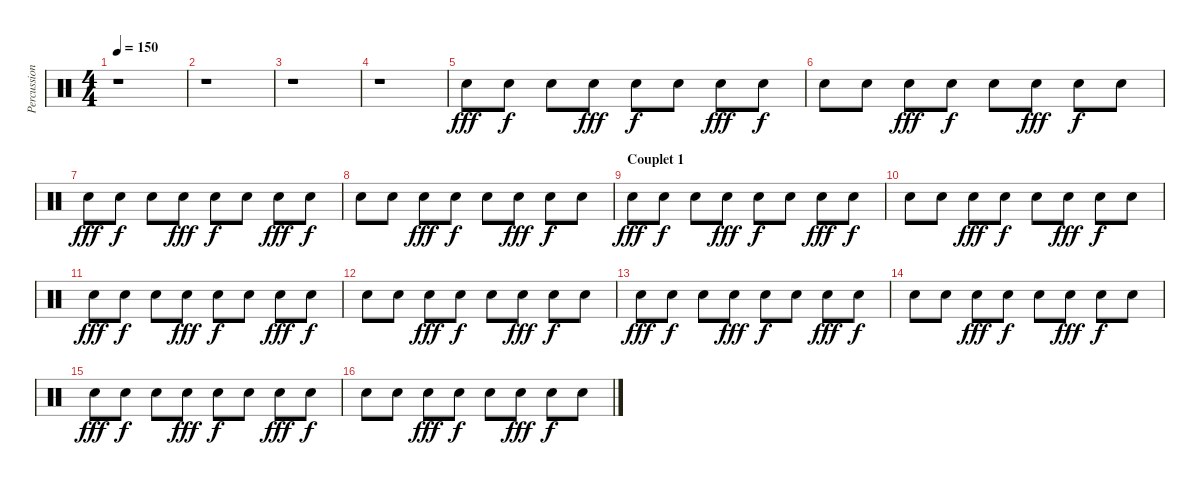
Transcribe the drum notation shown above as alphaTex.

\track ("Percussions" "Percussion") {instrument percussion}
\staff {score}
\articulation defaults
\ts (4 4)
\tempo 150
\clef neutral
\ks c
r.1{dy fff} |
r.1 |
r.1 |
r.1 |
"Electric Snare (hit)".8 "Electric Snare (hit)".8{dy f} "Electric Snare (hit)".8 "Electric Snare (hit)".8{dy fff} "Electric Snare (hit)".8{dy f} "Electric Snare (hit)".8 "Electric Snare (hit)".8{dy fff} "Electric Snare (hit)".8{dy f} |
"Electric Snare (hit)".8 "Electric Snare (hit)".8 "Electric Snare (hit)".8{dy fff} "Electric Snare (hit)".8{dy f} "Electric Snare (hit)".8 "Electric Snare (hit)".8{dy fff} "Electric Snare (hit)".8{dy f} "Electric Snare (hit)".8 |
"Electric Snare (hit)".8{dy fff} "Electric Snare (hit)".8{dy f} "Electric Snare (hit)".8 "Electric Snare (hit)".8{dy fff} "Electric Snare (hit)".8{dy f} "Electric Snare (hit)".8 "Electric Snare (hit)".8{dy fff} "Electric Snare (hit)".8{dy f} |
"Electric Snare (hit)".8 "Electric Snare (hit)".8 "Electric Snare (hit)".8{dy fff} "Electric Snare (hit)".8{dy f} "Electric Snare (hit)".8 "Electric Snare (hit)".8{dy fff} "Electric Snare (hit)".8{dy f} "Electric Snare (hit)".8 |
\section ("" "Couplet 1")
"Electric Snare (hit)".8{dy fff} "Electric Snare (hit)".8{dy f} "Electric Snare (hit)".8 "Electric Snare (hit)".8{dy fff} "Electric Snare (hit)".8{dy f} "Electric Snare (hit)".8 "Electric Snare (hit)".8{dy fff} "Electric Snare (hit)".8{dy f} |
"Electric Snare (hit)".8 "Electric Snare (hit)".8 "Electric Snare (hit)".8{dy fff} "Electric Snare (hit)".8{dy f} "Electric Snare (hit)".8 "Electric Snare (hit)".8{dy fff} "Electric Snare (hit)".8{dy f} "Electric Snare (hit)".8 |
"Electric Snare (hit)".8{dy fff} "Electric Snare (hit)".8{dy f} "Electric Snare (hit)".8 "Electric Snare (hit)".8{dy fff} "Electric Snare (hit)".8{dy f} "Electric Snare (hit)".8 "Electric Snare (hit)".8{dy fff} "Electric Snare (hit)".8{dy f} |
"Electric Snare (hit)".8 "Electric Snare (hit)".8 "Electric Snare (hit)".8{dy fff} "Electric Snare (hit)".8{dy f} "Electric Snare (hit)".8 "Electric Snare (hit)".8{dy fff} "Electric Snare (hit)".8{dy f} "Electric Snare (hit)".8 |
"Electric Snare (hit)".8{dy fff} "Electric Snare (hit)".8{dy f} "Electric Snare (hit)".8 "Electric Snare (hit)".8{dy fff} "Electric Snare (hit)".8{dy f} "Electric Snare (hit)".8 "Electric Snare (hit)".8{dy fff} "Electric Snare (hit)".8{dy f} |
"Electric Snare (hit)".8 "Electric Snare (hit)".8 "Electric Snare (hit)".8{dy fff} "Electric Snare (hit)".8{dy f} "Electric Snare (hit)".8 "Electric Snare (hit)".8{dy fff} "Electric Snare (hit)".8{dy f} "Electric Snare (hit)".8 |
"Electric Snare (hit)".8{dy fff} "Electric Snare (hit)".8{dy f} "Electric Snare (hit)".8 "Electric Snare (hit)".8{dy fff} "Electric Snare (hit)".8{dy f} "Electric Snare (hit)".8 "Electric Snare (hit)".8{dy fff} "Electric Snare (hit)".8{dy f} |
"Electric Snare (hit)".8 "Electric Snare (hit)".8 "Electric Snare (hit)".8{dy fff} "Electric Snare (hit)".8{dy f} "Electric Snare (hit)".8 "Electric Snare (hit)".8{dy fff} "Electric Snare (hit)".8{dy f} "Electric Snare (hit)".8
